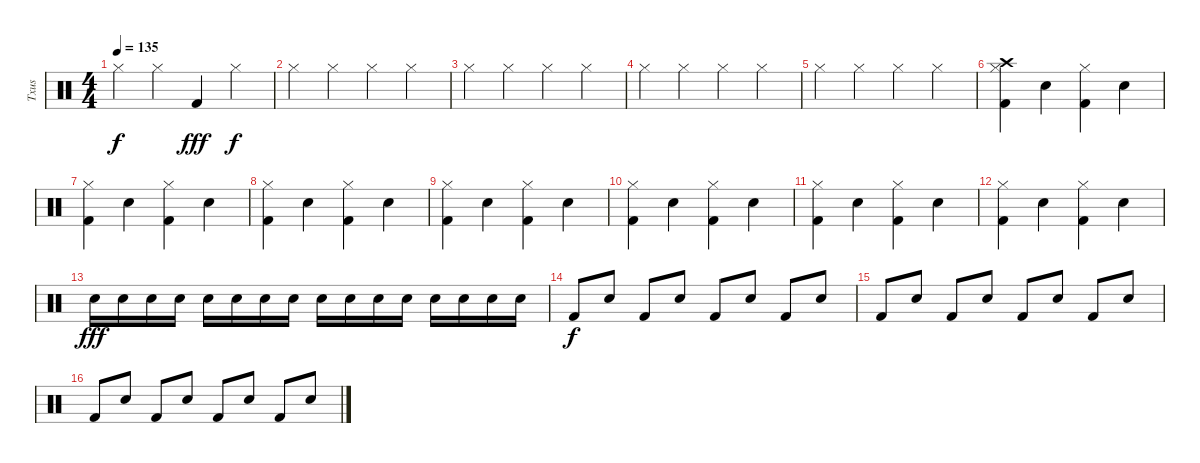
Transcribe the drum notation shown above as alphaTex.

\track ("Txus" "Txus") {instrument percussion}
\staff {score}
\articulation defaults
\ts (4 4)
\tempo 135
\clef neutral
\ks c "Hi-Hat (closed)".4{dy f} "Hi-Hat (closed)".4 "Kick (hit) 2".4{dy fff volume 16} "Hi-Hat (closed)".4{dy f volume 5}
|
"Hi-Hat (closed)".4 "Hi-Hat (closed)".4 "Hi-Hat (closed)".4 "Hi-Hat (closed)".4 |
"Hi-Hat (closed)".4 "Hi-Hat (closed)".4 "Hi-Hat (closed)".4 "Hi-Hat (closed)".4 |
"Hi-Hat (closed)".4 "Hi-Hat (closed)".4 "Hi-Hat (closed)".4 "Hi-Hat (closed)".4 |
"Hi-Hat (closed)".4 "Hi-Hat (closed)".4 "Hi-Hat (closed)".4 "Hi-Hat (closed)".4 |
("Crash high (hit)" "Hi-Hat (closed)" "Kick (hit) 2").4{volume 14} "Snare (hit) 2".4 ("Hi-Hat (closed)" "Kick (hit) 2").4 "Snare (hit) 2".4 |
("Hi-Hat (closed)" "Kick (hit) 2").4 "Snare (hit) 2".4 ("Hi-Hat (closed)" "Kick (hit) 2").4 "Snare (hit) 2".4 |
("Hi-Hat (closed)" "Kick (hit) 2").4 "Snare (hit) 2".4 ("Hi-Hat (closed)" "Kick (hit) 2").4 "Snare (hit) 2".4 |
("Hi-Hat (closed)" "Kick (hit) 2").4 "Snare (hit) 2".4 ("Hi-Hat (closed)" "Kick (hit) 2").4 "Snare (hit) 2".4 |
("Hi-Hat (closed)" "Kick (hit) 2").4 "Snare (hit) 2".4 ("Hi-Hat (closed)" "Kick (hit) 2").4 "Snare (hit) 2".4 |
("Hi-Hat (closed)" "Kick (hit) 2").4 "Snare (hit) 2".4 ("Hi-Hat (closed)" "Kick (hit) 2").4 "Snare (hit) 2".4 |
("Hi-Hat (closed)" "Kick (hit) 2").4 "Snare (hit) 2".4 ("Hi-Hat (closed)" "Kick (hit) 2").4 "Snare (hit) 2".4 |
"Electric Snare (hit)".16{dy fff} "Electric Snare (hit)".16 "Electric Snare (hit)".16 "Electric Snare (hit)".16 "Electric Snare (hit)".16 "Electric Snare (hit)".16 "Electric Snare (hit)".16 "Electric Snare (hit)".16 "Electric Snare (hit)".16 "Electric Snare (hit)".16 "Electric Snare (hit)".16 "Electric Snare (hit)".16 "Electric Snare (hit)".16 "Electric Snare (hit)".16 "Electric Snare (hit)".16 "Electric Snare (hit)".16 |
"Kick (hit) 2".8{dy f} "Snare (hit) 2".8 "Kick (hit) 2".8 "Snare (hit) 2".8 "Kick (hit) 2".8 "Snare (hit) 2".8 "Kick (hit) 2".8 "Snare (hit) 2".8 |
"Kick (hit) 2".8 "Snare (hit) 2".8 "Kick (hit) 2".8 "Snare (hit) 2".8 "Kick (hit) 2".8 "Snare (hit) 2".8 "Kick (hit) 2".8 "Snare (hit) 2".8 |
"Kick (hit) 2".8 "Snare (hit) 2".8 "Kick (hit) 2".8 "Snare (hit) 2".8 "Kick (hit) 2".8 "Snare (hit) 2".8 "Kick (hit) 2".8 "Snare (hit) 2".8
